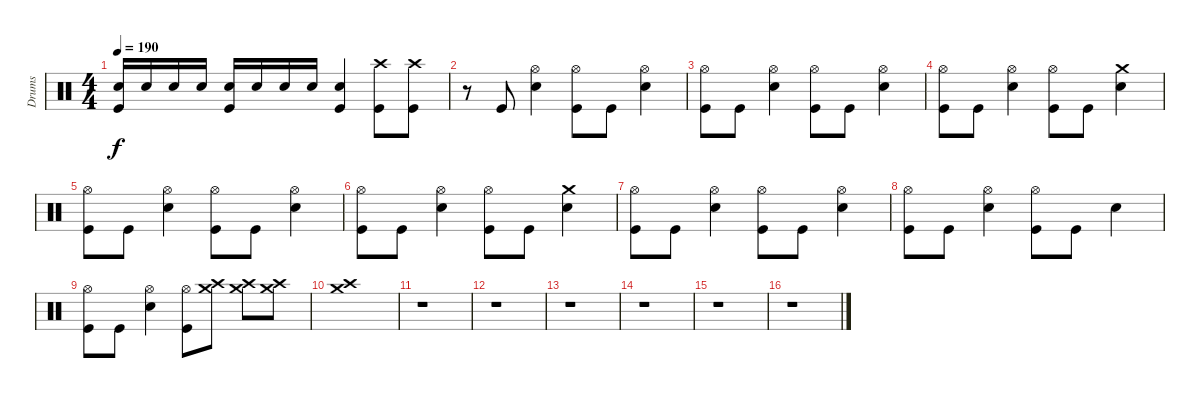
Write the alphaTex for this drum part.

\track ("Drums" "Drums") {instrument percussion}
\staff {score}
\articulation defaults
\ts (4 4)
\tempo 190
\clef neutral
\ks c
("Kick (hit)" "Electric Snare (hit)").16{dy f} "Electric Snare (hit)".16 "Electric Snare (hit)".16 "Electric Snare (hit)".16 ("Kick (hit)" "Electric Snare (hit)").16 "Electric Snare (hit)".16 "Electric Snare (hit)".16 "Electric Snare (hit)".16 ("Kick (hit)" "Electric Snare (hit)").4 ("Kick (hit)" "Crash high (hit)").8 ("Kick (hit)" "Crash high (hit)").8 |
r.8 "Kick (hit)".8 ("Electric Snare (hit)" "Hi-Hat (open)").4 ("Kick (hit)" "Hi-Hat (open)").8 "Kick (hit)".8 ("Electric Snare (hit)" "Hi-Hat (open)").4 |
("Kick (hit)" "Hi-Hat (open)").8 "Kick (hit)".8 ("Electric Snare (hit)" "Hi-Hat (open)").4 ("Kick (hit)" "Hi-Hat (open)").8 "Kick (hit)".8 ("Electric Snare (hit)" "Hi-Hat (open)").4 |
("Kick (hit)" "Hi-Hat (open)").8 "Kick (hit)".8 ("Electric Snare (hit)" "Hi-Hat (open)").4 ("Kick (hit)" "Hi-Hat (open)").8 "Kick (hit)".8 ("Electric Snare (hit)" "Crash medium (hit)").4 |
("Kick (hit)" "Hi-Hat (open)").8 "Kick (hit)".8 ("Electric Snare (hit)" "Hi-Hat (open)").4 ("Kick (hit)" "Hi-Hat (open)").8 "Kick (hit)".8 ("Electric Snare (hit)" "Hi-Hat (open)").4 |
("Kick (hit)" "Hi-Hat (open)").8 "Kick (hit)".8 ("Electric Snare (hit)" "Hi-Hat (open)").4 ("Kick (hit)" "Hi-Hat (open)").8 "Kick (hit)".8 ("Electric Snare (hit)" "Crash medium (hit)").4 |
("Kick (hit)" "Hi-Hat (open)").8 "Kick (hit)".8 ("Electric Snare (hit)" "Hi-Hat (open)").4 ("Kick (hit)" "Hi-Hat (open)").8 "Kick (hit)".8 ("Electric Snare (hit)" "Hi-Hat (open)").4 |
("Kick (hit)" "Hi-Hat (open)").8 "Kick (hit)".8 ("Electric Snare (hit)" "Hi-Hat (open)").4 ("Kick (hit)" "Hi-Hat (open)").8 "Kick (hit)".8 "Electric Snare (hit)".4 |
("Hi-Hat (open)" "Kick (hit)").8 "Kick (hit)".8 ("Electric Snare (hit)" "Hi-Hat (open)").4 ("Kick (hit)" "Hi-Hat (open)").8 ("Crash high (hit)" "Crash medium (hit)").8 ("Crash high (hit)" "Crash medium (hit)").8 ("Crash high (hit)" "Crash medium (hit)").8 |
("Crash high (hit)" "Crash medium (hit)").1 |
r.1 |
r.1 |
r.1 |
r.1 |
r.1 |
r.1
